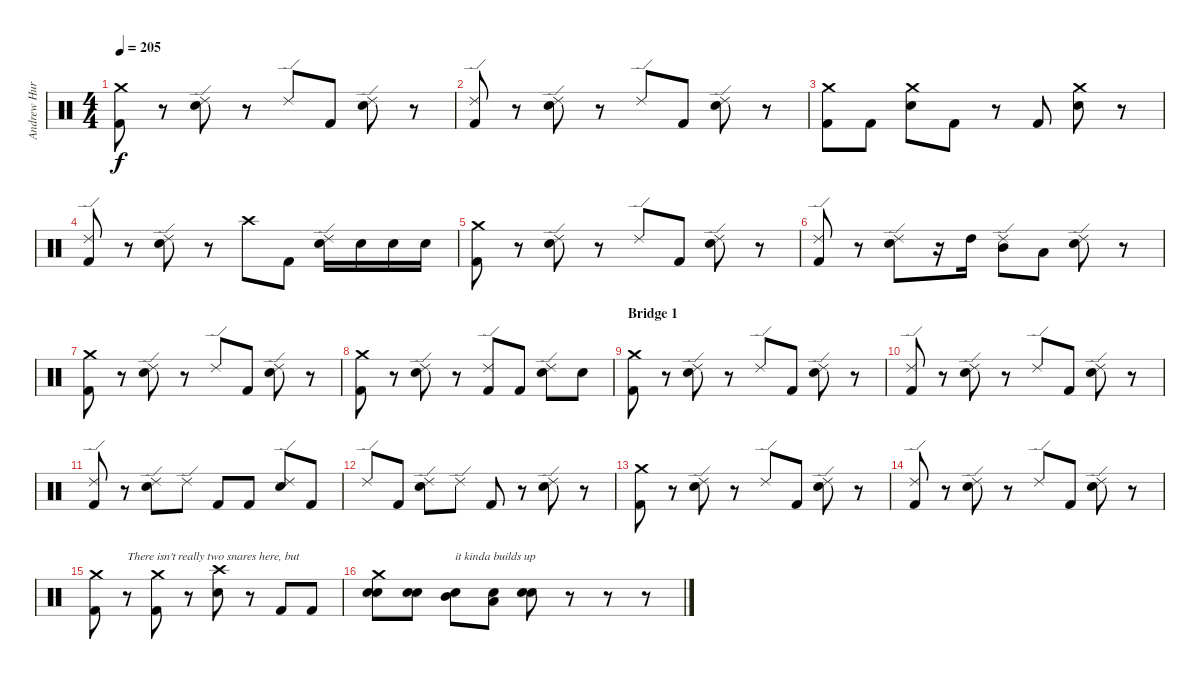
\track ("Andrew Hurley (Drums)" "Andrew Hur") {instrument percussion}
\staff {score}
\articulation defaults
\ts (4 4)
\tempo 205
\clef neutral
\ks c
("Crash medium (hit)" "Kick (hit) 2").8{dy f} r.8 ("Ride (edge) 2" "Electric Snare (hit)").8 r.8 "Ride (edge) 2".8 "Kick (hit) 2".8 ("Ride (edge) 2" "Electric Snare (hit)").8 r.8 |
("Ride (edge) 2" "Kick (hit) 2").8 r.8 ("Ride (edge) 2" "Electric Snare (hit)").8 r.8 "Ride (edge) 2".8 "Kick (hit) 2".8 ("Ride (edge) 2" "Electric Snare (hit)").8 r.8 |
("Crash medium (hit)" "Kick (hit) 2").8 "Kick (hit) 2".8 ("Crash medium (hit)" "Electric Snare (hit)").8 "Kick (hit) 2".8 r.8 "Kick (hit) 2".8 ("Crash medium (hit)" "Electric Snare (hit)").8 r.8 |
("Ride (edge) 2" "Kick (hit) 2").8 r.8 ("Ride (edge) 2" "Electric Snare (hit)").8 r.8 "Crash high (hit)".8 "Kick (hit) 2".8 ("Ride (edge) 2" "Electric Snare (hit)").16 "Electric Snare (hit)".16 "Electric Snare (hit)".16 "Electric Snare (hit)".16 |
("Crash medium (hit)" "Kick (hit) 2").8 r.8 ("Ride (edge) 2" "Electric Snare (hit)").8 r.8 "Ride (edge) 2".8 "Kick (hit) 2".8 ("Ride (edge) 2" "Electric Snare (hit)").8 r.8 |
("Ride (edge) 2" "Kick (hit) 2").8 r.8 ("Ride (edge) 2" "Electric Snare (hit)").8 r.16 "High Tom (hit)".16 ("Ride (edge) 2" "Mid Tom (hit)").8 "Low Tom (hit)".8 ("Ride (edge) 2" "Electric Snare (hit)").8 r.8 |
("Crash medium (hit)" "Kick (hit) 2").8 r.8 ("Ride (edge) 2" "Electric Snare (hit)").8 r.8 "Ride (edge) 2".8 "Kick (hit) 2".8 ("Ride (edge) 2" "Electric Snare (hit)").8 r.8 |
("Crash medium (hit)" "Kick (hit) 2").8 r.8 ("Ride (edge) 2" "Electric Snare (hit)").8 r.8 ("Ride (edge) 2" "Kick (hit) 2").8 "Kick (hit) 2".8 ("Ride (edge) 2" "Electric Snare (hit)").8 "Electric Snare (hit)".8 |
\section ("" "Bridge 1")
("Crash medium (hit)" "Kick (hit) 2").8 r.8 ("Ride (edge) 2" "Electric Snare (hit)").8 r.8 "Ride (edge) 2".8 "Kick (hit) 2".8 ("Ride (edge) 2" "Electric Snare (hit)").8 r.8 |
("Ride (edge) 2" "Kick (hit) 2").8 r.8 ("Ride (edge) 2" "Electric Snare (hit)").8 r.8 "Ride (edge) 2".8 "Kick (hit) 2".8 ("Ride (edge) 2" "Electric Snare (hit)").8 r.8 |
("Ride (edge) 2" "Kick (hit) 2").8 r.8 ("Ride (edge) 2" "Electric Snare (hit)").8 "Ride (edge) 2".8 "Kick (hit) 2".8 "Kick (hit) 2".8 ("Ride (edge) 2" "Electric Snare (hit)").8 "Kick (hit) 2".8 |
"Ride (edge) 2".8 "Kick (hit) 2".8 ("Ride (edge) 2" "Electric Snare (hit)").8 "Ride (edge) 2".8 "Kick (hit) 2".8 r.8 ("Ride (edge) 2" "Electric Snare (hit)").8 r.8 |
("Crash medium (hit)" "Kick (hit) 2").8 r.8 ("Ride (edge) 2" "Electric Snare (hit)").8 r.8 "Ride (edge) 2".8 "Kick (hit) 2".8 ("Ride (edge) 2" "Electric Snare (hit)").8 r.8 |
("Ride (edge) 2" "Kick (hit) 2").8 r.8 ("Ride (edge) 2" "Electric Snare (hit)").8 r.8 "Ride (edge) 2".8 "Kick (hit) 2".8 ("Ride (edge) 2" "Electric Snare (hit)").8 r.8 |
("Crash medium (hit)" "Kick (hit) 2").8 r.8{txt "There isn't really two snares here, but"} ("Crash medium (hit)" "Kick (hit) 2").8 r.8 ("Crash high (hit)" "Electric Snare (hit)").8 r.8 "Kick (hit) 2".8 "Kick (hit) 2".8 |
("Crash medium (hit)" "Electric Snare (hit)" "Snare (hit) 2").8 ("Electric Snare (hit)" "Snare (hit) 2").8 ("Mid Tom (hit)" "Snare (hit) 2").8{txt "it kinda builds up"} ("Low Tom (hit)" "Snare (hit) 2").8 ("Electric Snare (hit)" "Snare (hit) 2").8 r.8 r.8 r.8
